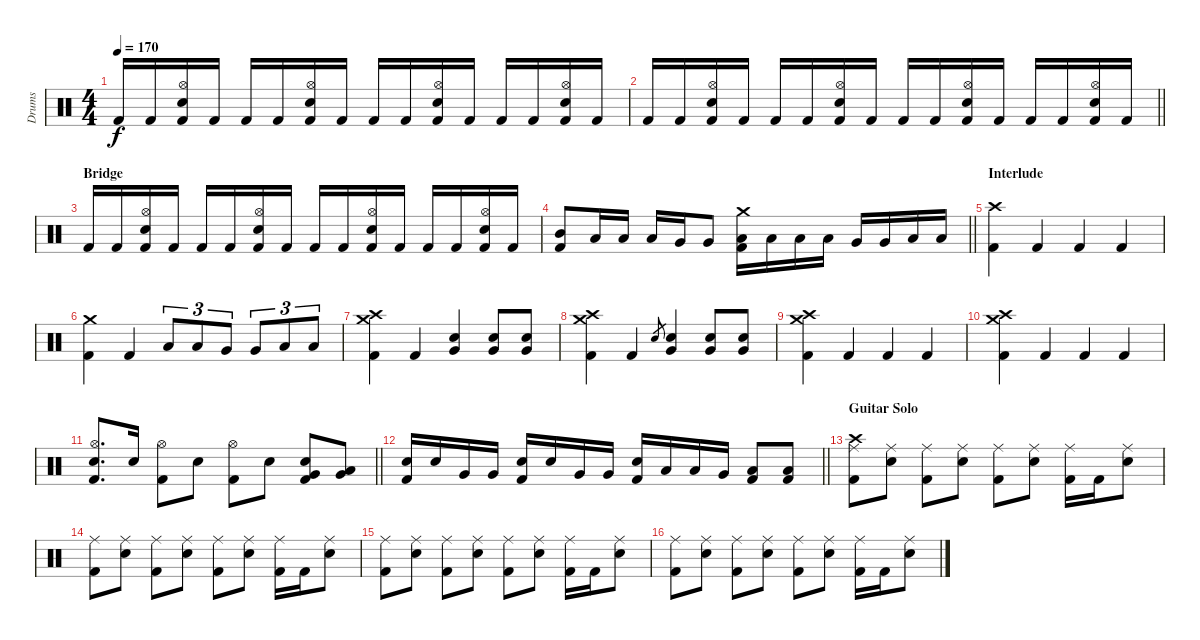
\track ("Drums" "Drums") {instrument percussion}
\staff {score}
\articulation defaults
\ts (4 4)
\tempo 170
\clef neutral
\ks c "Kick (hit) 2".16{dy f} "Kick (hit) 2".16
("Hi-Hat (open)" "Electric Snare (hit)" "Kick (hit) 2").16 "Kick (hit) 2".16 "Kick (hit) 2".16 "Kick (hit) 2".16 ("Hi-Hat (open)" "Electric Snare (hit)" "Kick (hit) 2").16 "Kick (hit) 2".16 "Kick (hit) 2".16 "Kick (hit) 2".16 ("Hi-Hat (open)" "Electric Snare (hit)" "Kick (hit) 2").16 "Kick (hit) 2".16 "Kick (hit) 2".16 "Kick (hit) 2".16 ("Hi-Hat (open)" "Electric Snare (hit)" "Kick (hit) 2").16 "Kick (hit) 2".16 |
\barLineRight lightlight "Kick (hit) 2".16 "Kick (hit) 2".16
("Hi-Hat (open)" "Electric Snare (hit)" "Kick (hit) 2").16 "Kick (hit) 2".16 "Kick (hit) 2".16 "Kick (hit) 2".16 ("Hi-Hat (open)" "Electric Snare (hit)" "Kick (hit) 2").16 "Kick (hit) 2".16 "Kick (hit) 2".16 "Kick (hit) 2".16 ("Hi-Hat (open)" "Electric Snare (hit)" "Kick (hit) 2").16 "Kick (hit) 2".16 "Kick (hit) 2".16 "Kick (hit) 2".16 ("Hi-Hat (open)" "Electric Snare (hit)" "Kick (hit) 2").16 "Kick (hit) 2".16 |
\section ("" "Bridge")
"Kick (hit) 2".16 "Kick (hit) 2".16 ("Hi-Hat (open)" "Electric Snare (hit)" "Kick (hit) 2").16 "Kick (hit) 2".16 "Kick (hit) 2".16 "Kick (hit) 2".16 ("Hi-Hat (open)" "Electric Snare (hit)" "Kick (hit) 2").16 "Kick (hit) 2".16 "Kick (hit) 2".16 "Kick (hit) 2".16 ("Hi-Hat (open)" "Electric Snare (hit)" "Kick (hit) 2").16 "Kick (hit) 2".16 "Kick (hit) 2".16 "Kick (hit) 2".16 ("Hi-Hat (open)" "Electric Snare (hit)" "Kick (hit) 2").16 "Kick (hit) 2".16 |
\barLineRight lightlight
("Mid Tom (hit)" "Kick (hit) 2").8 "Low Tom (hit)".16 "Low Tom (hit)".16 "Low Tom (hit)".16 "Very Low Tom (hit)".16 "Very Low Tom (hit)".8 ("Crash medium (hit)" "Low Tom (hit)" "Kick (hit) 2").16 "Low Tom (hit)".16 "Low Tom (hit)".16 "Low Tom (hit)".16 "Very Low Tom (hit)".16 "Very Low Tom (hit)".16 "Low Floor Tom (hit)".16 "Low Floor Tom (hit)".16 |
\section ("" "Interlude")
("Crash high (hit)" "Kick (hit) 2").4 "Kick (hit) 2".4 "Kick (hit) 2".4 "Kick (hit) 2".4 |
("Crash medium (hit)" "Kick (hit) 2").4 "Kick (hit) 2".4 "Low Tom (hit)".8{tu (3 2)} "Low Tom (hit)".8{tu (3 2)} "Very Low Tom (hit)".8{tu (3 2)} "Very Low Tom (hit)".8{tu (3 2)} "Low Floor Tom (hit)".8{tu (3 2)} "Low Floor Tom (hit)".8{tu (3 2)} |
("Crash medium (hit)" "Crash high (hit)" "Kick (hit) 2").4 "Kick (hit) 2".4 ("Very Low Tom (hit)" "Electric Snare (hit)").4 ("Very Low Tom (hit)" "Electric Snare (hit)").8 ("Very Low Tom (hit)" "Electric Snare (hit)").8 |
("Crash medium (hit)" "Crash high (hit)" "Kick (hit) 2").4 "Kick (hit) 2".4 "Electric Snare (hit)".8{gr} ("Very Low Tom (hit)" "Electric Snare (hit)").4 ("Very Low Tom (hit)" "Electric Snare (hit)").8 ("Very Low Tom (hit)" "Electric Snare (hit)").8 |
("Crash medium (hit)" "Crash high (hit)" "Kick (hit) 2").4 "Kick (hit) 2".4 "Kick (hit) 2".4 "Kick (hit) 2".4 |
("Crash medium (hit)" "Crash high (hit)" "Kick (hit) 2").4 "Kick (hit) 2".4 "Kick (hit) 2".4 "Kick (hit) 2".4 |
\barLineRight lightlight
("Hi-Hat (open)" "Electric Snare (hit)" "Kick (hit) 2").8{d} "Electric Snare (hit)".16 ("Hi-Hat (open)" "Kick (hit) 2").8 "Electric Snare (hit)".8 ("Hi-Hat (open)" "Kick (hit) 2").8 "Electric Snare (hit)".8 ("Very Low Tom (hit)" "Electric Snare (hit)" "Kick (hit) 2").8 ("Very Low Tom (hit)" "Low Tom (hit)").8 |
\barLineRight lightlight
("Electric Snare (hit)" "Kick (hit) 2").16 "Electric Snare (hit)".16 "Very Low Tom (hit)".16 "Very Low Tom (hit)".16 ("Electric Snare (hit)" "Kick (hit) 2").16 "Electric Snare (hit)".16 "Very Low Tom (hit)".16 "Very Low Tom (hit)".16 ("Electric Snare (hit)" "Kick (hit) 2").16 "Low Tom (hit)".16 "Low Tom (hit)".16 "Very Low Tom (hit)".16 ("Low Floor Tom (hit)" "Kick (hit) 2").8 ("Low Floor Tom (hit)" "Kick (hit) 2").8 |
\section ("" "Guitar Solo")
("Crash high (hit)" "Ride (middle)" "Kick (hit) 2").8 ("Ride (middle)" "Electric Snare (hit)").8 ("Ride (middle)" "Kick (hit) 2").8 ("Ride (middle)" "Electric Snare (hit)").8 ("Ride (middle)" "Kick (hit) 2").8 ("Ride (middle)" "Electric Snare (hit)").8 ("Ride (middle)" "Kick (hit) 2").16 "Kick (hit) 2".16 ("Ride (middle)" "Electric Snare (hit)").8 |
("Ride (middle)" "Kick (hit) 2").8 ("Ride (middle)" "Electric Snare (hit)").8 ("Ride (middle)" "Kick (hit) 2").8 ("Ride (middle)" "Electric Snare (hit)").8 ("Ride (middle)" "Kick (hit) 2").8 ("Ride (middle)" "Electric Snare (hit)").8 ("Ride (middle)" "Kick (hit) 2").16 "Kick (hit) 2".16 ("Ride (middle)" "Electric Snare (hit)").8 |
("Ride (middle)" "Kick (hit) 2").8 ("Ride (middle)" "Electric Snare (hit)").8 ("Ride (middle)" "Kick (hit) 2").8 ("Ride (middle)" "Electric Snare (hit)").8 ("Ride (middle)" "Kick (hit) 2").8 ("Ride (middle)" "Electric Snare (hit)").8 ("Ride (middle)" "Kick (hit) 2").16 "Kick (hit) 2".16 ("Ride (middle)" "Electric Snare (hit)").8 |
("Ride (middle)" "Kick (hit) 2").8 ("Ride (middle)" "Electric Snare (hit)").8 ("Ride (middle)" "Kick (hit) 2").8 ("Ride (middle)" "Electric Snare (hit)").8 ("Ride (middle)" "Kick (hit) 2").8 ("Ride (middle)" "Electric Snare (hit)").8 ("Ride (middle)" "Kick (hit) 2").16 "Kick (hit) 2".16 ("Ride (middle)" "Electric Snare (hit)").8
